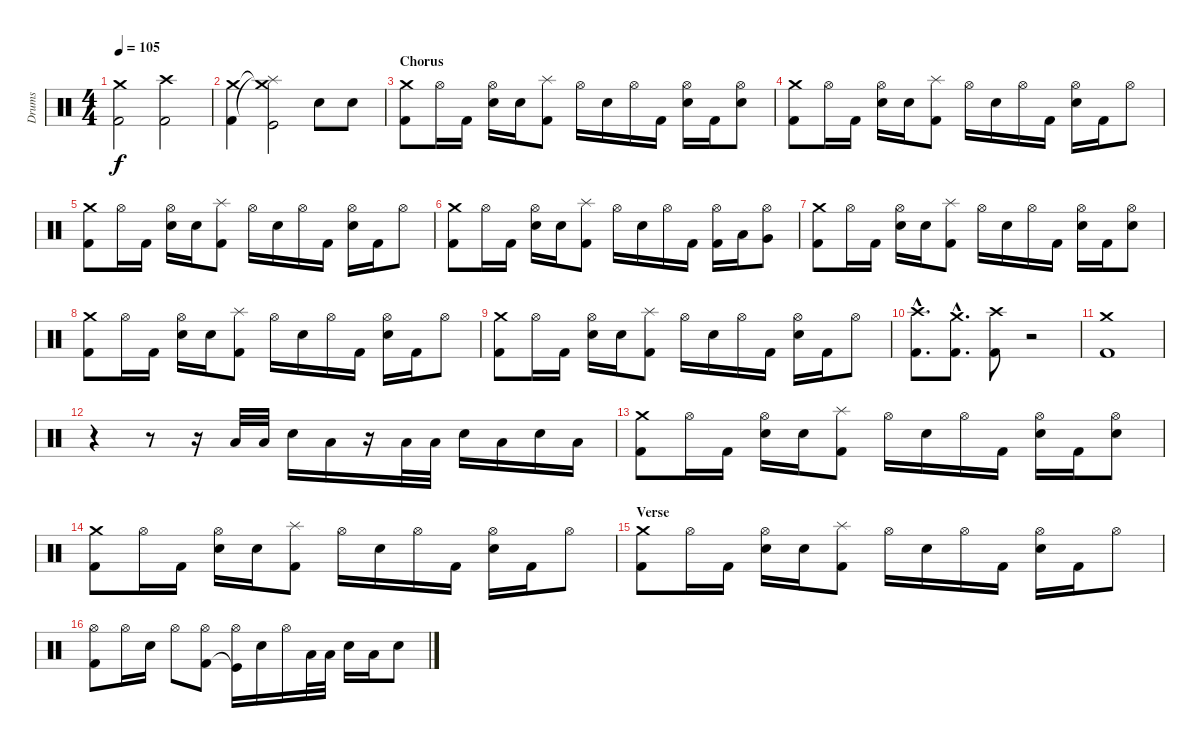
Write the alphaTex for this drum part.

\track ("Drums" "Drums") {instrument percussion}
\staff {score}
\articulation defaults
\ts (4 4)
\tempo 105
\clef neutral
\ks c
("Crash medium (hit)" "Kick (hit) 2").2{dy f} ("Crash high (hit)" "Kick (hit) 2").2 |
("Crash medium (hit)" "Kick (hit) 2").4 ("Crash medium (hit)"{t} "Splash (hit)"{t} "Kick (hit)").2 "Electric Snare (hit)".8 "Electric Snare (hit)".8 |
\section ("" "Chorus")
("Crash medium (hit)" "Kick (hit) 2").8 "Hi-Hat (open)".16 "Kick (hit) 2".16 ("Hi-Hat (open)" "Electric Snare (hit)").16 "Electric Snare (hit)".16 ("Splash (hit)" "Kick (hit) 2").8 "Hi-Hat (open)".16 "Electric Snare (hit)".16 "Hi-Hat (open)".16 "Kick (hit) 2".16 ("Hi-Hat (open)" "Electric Snare (hit)").16 "Kick (hit) 2".16 ("Hi-Hat (open)" "Electric Snare (hit)").8 |
("Crash medium (hit)" "Kick (hit) 2").8 "Hi-Hat (open)".16 "Kick (hit) 2".16 ("Hi-Hat (open)" "Electric Snare (hit)").16 "Electric Snare (hit)".16 ("Splash (hit)" "Kick (hit) 2").8 "Hi-Hat (open)".16 "Electric Snare (hit)".16 "Hi-Hat (open)".16 "Kick (hit) 2".16 ("Hi-Hat (open)" "Electric Snare (hit)").16 "Kick (hit) 2".16 "Hi-Hat (open)".8 |
("Crash medium (hit)" "Kick (hit) 2").8 "Hi-Hat (open)".16 "Kick (hit) 2".16 ("Hi-Hat (open)" "Electric Snare (hit)").16 "Electric Snare (hit)".16 ("Splash (hit)" "Kick (hit) 2").8 "Hi-Hat (open)".16 "Electric Snare (hit)".16 "Hi-Hat (open)".16 "Kick (hit) 2".16 ("Hi-Hat (open)" "Electric Snare (hit)").16 "Kick (hit) 2".16 "Hi-Hat (open)".8 |
("Crash medium (hit)" "Kick (hit) 2").8 "Hi-Hat (open)".16 "Kick (hit) 2".16 ("Hi-Hat (open)" "Electric Snare (hit)").16 "Electric Snare (hit)".16 ("Splash (hit)" "Kick (hit) 2").8 "Hi-Hat (open)".16 "Electric Snare (hit)".16 "Hi-Hat (open)".16 "Kick (hit) 2".16 ("Hi-Hat (open)" "Kick (hit) 2").16 "Low Tom (hit)".16 ("Hi-Hat (open)" "Very Low Tom (hit)").8 |
("Crash medium (hit)" "Kick (hit) 2").8 "Hi-Hat (open)".16 "Kick (hit) 2".16 ("Hi-Hat (open)" "Electric Snare (hit)").16 "Electric Snare (hit)".16 ("Splash (hit)" "Kick (hit) 2").8 "Hi-Hat (open)".16 "Electric Snare (hit)".16 "Hi-Hat (open)".16 "Kick (hit) 2".16 ("Hi-Hat (open)" "Electric Snare (hit)").16 "Kick (hit) 2".16 ("Hi-Hat (open)" "Electric Snare (hit)").8 |
("Crash medium (hit)" "Kick (hit) 2").8 "Hi-Hat (open)".16 "Kick (hit) 2".16 ("Hi-Hat (open)" "Electric Snare (hit)").16 "Electric Snare (hit)".16 ("Splash (hit)" "Kick (hit) 2").8 "Hi-Hat (open)".16 "Electric Snare (hit)".16 "Hi-Hat (open)".16 "Kick (hit) 2".16 ("Hi-Hat (open)" "Electric Snare (hit)").16 "Kick (hit) 2".16 "Hi-Hat (open)".8 |
("Crash medium (hit)" "Kick (hit) 2").8 "Hi-Hat (open)".16 "Kick (hit) 2".16 ("Hi-Hat (open)" "Electric Snare (hit)").16 "Electric Snare (hit)".16 ("Splash (hit)" "Kick (hit) 2").8 "Hi-Hat (open)".16 "Electric Snare (hit)".16 "Hi-Hat (open)".16 "Kick (hit) 2".16 ("Hi-Hat (open)" "Electric Snare (hit)").16 "Kick (hit) 2".16 "Hi-Hat (open)".8 |
("Crash high (hit)"{hac} "Kick (hit) 2"{hac}).8{d} ("Crash medium (hit)"{hac} "Kick (hit) 2"{hac}).8{d} ("Crash high (hit)" "Kick (hit) 2").8 r.2 |
("Crash medium (hit)" "Kick (hit) 2").1 |
r.4 r.8 r.16 "Low Floor Tom (hit)".32 "Low Tom (hit)".32 "Electric Snare (hit)".16 "Low Floor Tom (hit)".16 r.16 "Low Floor Tom (hit)".32 "Low Tom (hit)".32 "Electric Snare (hit)".16 "Low Floor Tom (hit)".16 "Electric Snare (hit)".16 "Low Floor Tom (hit)".16 |
("Crash medium (hit)" "Kick (hit) 2").8 "Hi-Hat (open)".16 "Kick (hit) 2".16 ("Hi-Hat (open)" "Electric Snare (hit)").16 "Electric Snare (hit)".16 ("Splash (hit)" "Kick (hit) 2").8 "Hi-Hat (open)".16 "Electric Snare (hit)".16 "Hi-Hat (open)".16 "Kick (hit) 2".16 ("Hi-Hat (open)" "Electric Snare (hit)").16 "Kick (hit) 2".16 ("Hi-Hat (open)" "Electric Snare (hit)").8 |
("Crash medium (hit)" "Kick (hit) 2").8 "Hi-Hat (open)".16 "Kick (hit) 2".16 ("Hi-Hat (open)" "Electric Snare (hit)").16 "Electric Snare (hit)".16 ("Splash (hit)" "Kick (hit) 2").8 "Hi-Hat (open)".16 "Electric Snare (hit)".16 "Hi-Hat (open)".16 "Kick (hit) 2".16 ("Hi-Hat (open)" "Electric Snare (hit)").16 "Kick (hit) 2".16 "Hi-Hat (open)".8 |
\section ("" "Verse")
("Crash medium (hit)" "Kick (hit) 2").8 "Hi-Hat (open)".16 "Kick (hit) 2".16 ("Hi-Hat (open)" "Electric Snare (hit)").16 "Electric Snare (hit)".16 ("Splash (hit)" "Kick (hit) 2").8 "Hi-Hat (open)".16 "Electric Snare (hit)".16 "Hi-Hat (open)".16 "Kick (hit) 2".16 ("Hi-Hat (open)" "Electric Snare (hit)").16 "Kick (hit) 2".16 "Hi-Hat (open)".8 |
("Hi-Hat (open)" "Kick (hit) 2").8 "Hi-Hat (open)".16 "Electric Snare (hit)".16 "Hi-Hat (open)".8 ("Hi-Hat (open)" "Kick (hit) 2").8 ("Hi-Hat (open)" "Kick (hit)"{t}).16 "Electric Snare (hit)".16 "Hi-Hat (open)".16 "Low Tom (hit)".32 "Low Floor Tom (hit)".32 "Electric Snare (hit)".16 "Low Floor Tom (hit)".16 "Electric Snare (hit)".8
